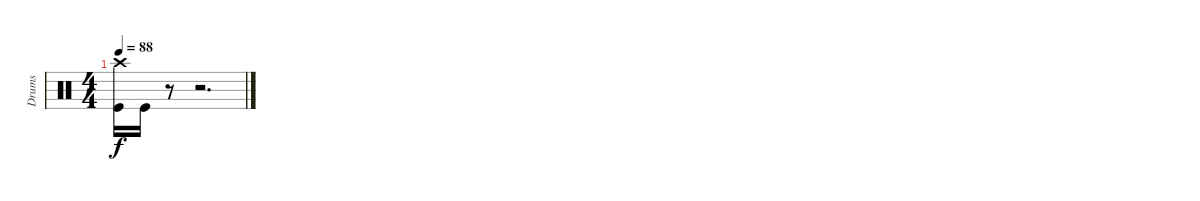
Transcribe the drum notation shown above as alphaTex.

\track ("Drums" "Drums") {instrument percussion}
\staff
\articulation defaults
\ts (4 4)
\tempo 88
\clef neutral
\ks c
("Crash high (hit)" "Kick (hit)").16{dy f} "Kick (hit)".16 r.8 r.2{d}
